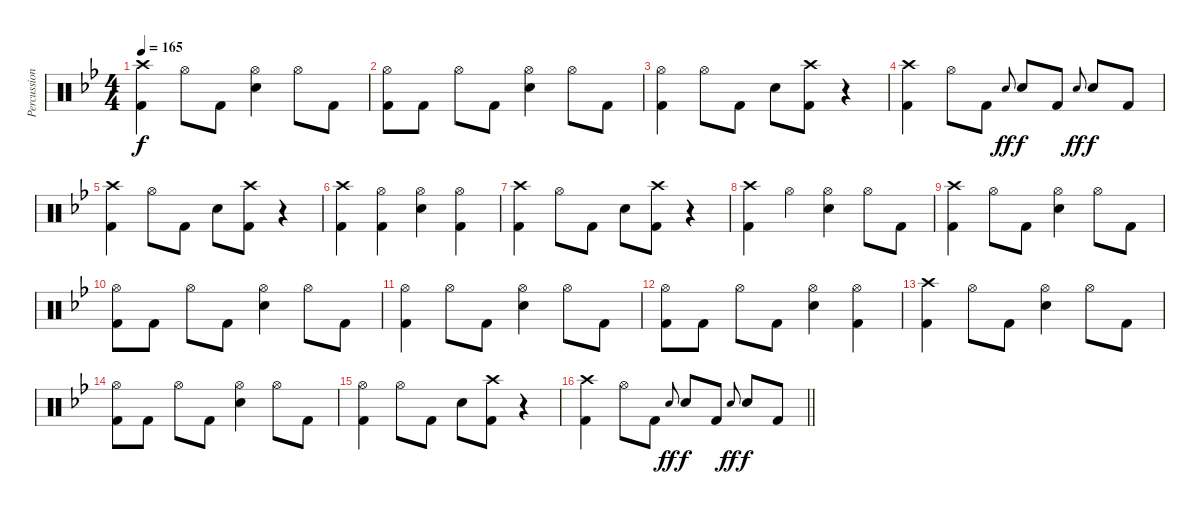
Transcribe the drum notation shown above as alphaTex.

\track ("Percussion - Aaron" "Percussion") {instrument percussion}
\staff {score}
\articulation defaults
\ts (4 4)
\tempo 165
\clef neutral
\ks gminor
("Crash high (hit)" "Kick (hit) 2").4{dy f} "Hi-Hat (open)".8 "Kick (hit) 2".8 ("Hi-Hat (open)" "Electric Snare (hit)").4 "Hi-Hat (open)".8 "Kick (hit) 2".8 |
("Hi-Hat (open)" "Kick (hit) 2").8 "Kick (hit) 2".8 "Hi-Hat (open)".8 "Kick (hit) 2".8 ("Hi-Hat (open)" "Electric Snare (hit)").4 "Hi-Hat (open)".8 "Kick (hit) 2".8 |
("Hi-Hat (open)" "Kick (hit) 2").4 "Hi-Hat (open)".8 "Kick (hit) 2".8 "Electric Snare (hit)".8 ("Crash high (hit)" "Kick (hit) 2").8 r.4 |
("Crash high (hit)" "Kick (hit) 2").4 "Hi-Hat (open)".8 "Kick (hit) 2".8 "Electric Snare (hit)".8{gr onbeat dy ff} "Electric Snare (hit)".8{dy f} "Kick (hit) 2".8 "Electric Snare (hit)".8{gr onbeat dy ff} "Electric Snare (hit)".8{dy f} "Kick (hit) 2".8 |
("Crash high (hit)" "Kick (hit) 2").4 "Hi-Hat (open)".8 "Kick (hit) 2".8 "Electric Snare (hit)".8 ("Crash high (hit)" "Kick (hit) 2").8 r.4 |
("Crash high (hit)" "Kick (hit) 2").4 ("Hi-Hat (open)" "Kick (hit) 2").4 ("Hi-Hat (open)" "Electric Snare (hit)").4 ("Hi-Hat (open)" "Kick (hit) 2").4 |
("Crash high (hit)" "Kick (hit) 2").4 "Hi-Hat (open)".8 "Kick (hit) 2".8 "Electric Snare (hit)".8 ("Crash high (hit)" "Kick (hit) 2").8 r.4 |
("Crash high (hit)" "Kick (hit) 2").4 "Hi-Hat (open)".4 ("Hi-Hat (open)" "Electric Snare (hit)").4 "Hi-Hat (open)".8 "Kick (hit) 2".8 |
("Crash high (hit)" "Kick (hit) 2").4 "Hi-Hat (open)".8 "Kick (hit) 2".8 ("Hi-Hat (open)" "Electric Snare (hit)").4 "Hi-Hat (open)".8 "Kick (hit) 2".8 |
("Hi-Hat (open)" "Kick (hit) 2").8 "Kick (hit) 2".8 "Hi-Hat (open)".8 "Kick (hit) 2".8 ("Hi-Hat (open)" "Electric Snare (hit)").4 "Hi-Hat (open)".8 "Kick (hit) 2".8 |
("Hi-Hat (open)" "Kick (hit) 2").4 "Hi-Hat (open)".8 "Kick (hit) 2".8 ("Hi-Hat (open)" "Electric Snare (hit)").4 "Hi-Hat (open)".8 "Kick (hit) 2".8 |
("Hi-Hat (open)" "Kick (hit) 2").8 "Kick (hit) 2".8 "Hi-Hat (open)".8 "Kick (hit) 2".8 ("Hi-Hat (open)" "Electric Snare (hit)").4 ("Hi-Hat (open)" "Kick (hit) 2").4 |
("Crash high (hit)" "Kick (hit) 2").4 "Hi-Hat (open)".8 "Kick (hit) 2".8 ("Hi-Hat (open)" "Electric Snare (hit)").4 "Hi-Hat (open)".8 "Kick (hit) 2".8 |
("Hi-Hat (open)" "Kick (hit) 2").8 "Kick (hit) 2".8 "Hi-Hat (open)".8 "Kick (hit) 2".8 ("Hi-Hat (open)" "Electric Snare (hit)").4 "Hi-Hat (open)".8 "Kick (hit) 2".8 |
("Hi-Hat (open)" "Kick (hit) 2").4 "Hi-Hat (open)".8 "Kick (hit) 2".8 "Electric Snare (hit)".8 ("Crash high (hit)" "Kick (hit) 2").8 r.4 |
\barLineRight lightlight
("Crash high (hit)" "Kick (hit) 2").4 "Hi-Hat (open)".8 "Kick (hit) 2".8 "Electric Snare (hit)".8{gr onbeat dy ff} "Electric Snare (hit)".8{dy f} "Kick (hit) 2".8 "Electric Snare (hit)".8{gr onbeat dy ff} "Electric Snare (hit)".8{dy f} "Kick (hit) 2".8
